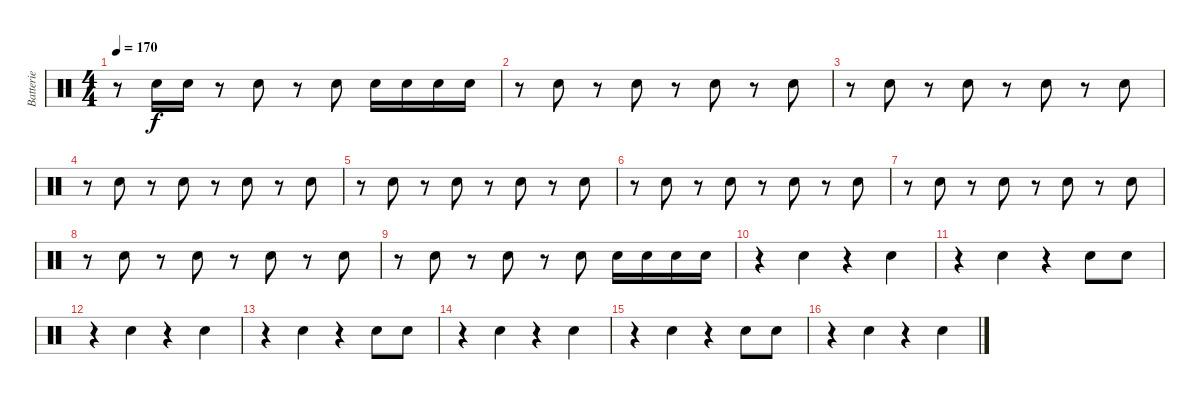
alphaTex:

\track ("Batterie" "Batterie") {instrument percussion}
\staff {score}
\articulation defaults
\ts (4 4)
\tempo 170
\clef neutral
\ks c
r.8{dy f} "Snare (hit) 2".16 "Snare (hit) 2".16 r.8 "Snare (hit) 2".8 r.8 "Snare (hit) 2".8 "Snare (hit) 2".16 "Snare (hit) 2".16 "Snare (hit) 2".16 "Snare (hit) 2".16 |
r.8 "Snare (hit) 2".8 r.8 "Snare (hit) 2".8 r.8 "Snare (hit) 2".8 r.8 "Snare (hit) 2".8 |
r.8 "Snare (hit) 2".8 r.8 "Snare (hit) 2".8 r.8 "Snare (hit) 2".8 r.8 "Snare (hit) 2".8 |
r.8 "Snare (hit) 2".8 r.8 "Snare (hit) 2".8 r.8 "Snare (hit) 2".8 r.8 "Snare (hit) 2".8 |
r.8 "Snare (hit) 2".8 r.8 "Snare (hit) 2".8 r.8 "Snare (hit) 2".8 r.8 "Snare (hit) 2".8 |
r.8 "Snare (hit) 2".8 r.8 "Snare (hit) 2".8 r.8 "Snare (hit) 2".8 r.8 "Snare (hit) 2".8 |
r.8 "Snare (hit) 2".8 r.8 "Snare (hit) 2".8 r.8 "Snare (hit) 2".8 r.8 "Snare (hit) 2".8 |
r.8 "Snare (hit) 2".8 r.8 "Snare (hit) 2".8 r.8 "Snare (hit) 2".8 r.8 "Snare (hit) 2".8 |
r.8 "Snare (hit) 2".8 r.8 "Snare (hit) 2".8 r.8 "Snare (hit) 2".8 "Snare (hit) 2".16 "Snare (hit) 2".16 "Snare (hit) 2".16 "Snare (hit) 2".16 |
r.4 "Snare (hit) 2".4 r.4 "Snare (hit) 2".4 |
r.4 "Snare (hit) 2".4 r.4 "Snare (hit) 2".8 "Snare (hit) 2".8 |
r.4 "Snare (hit) 2".4 r.4 "Snare (hit) 2".4 |
r.4 "Snare (hit) 2".4 r.4 "Snare (hit) 2".8 "Snare (hit) 2".8 |
r.4 "Snare (hit) 2".4 r.4 "Snare (hit) 2".4 |
r.4 "Snare (hit) 2".4 r.4 "Snare (hit) 2".8 "Snare (hit) 2".8 |
r.4 "Snare (hit) 2".4 r.4 "Snare (hit) 2".4
